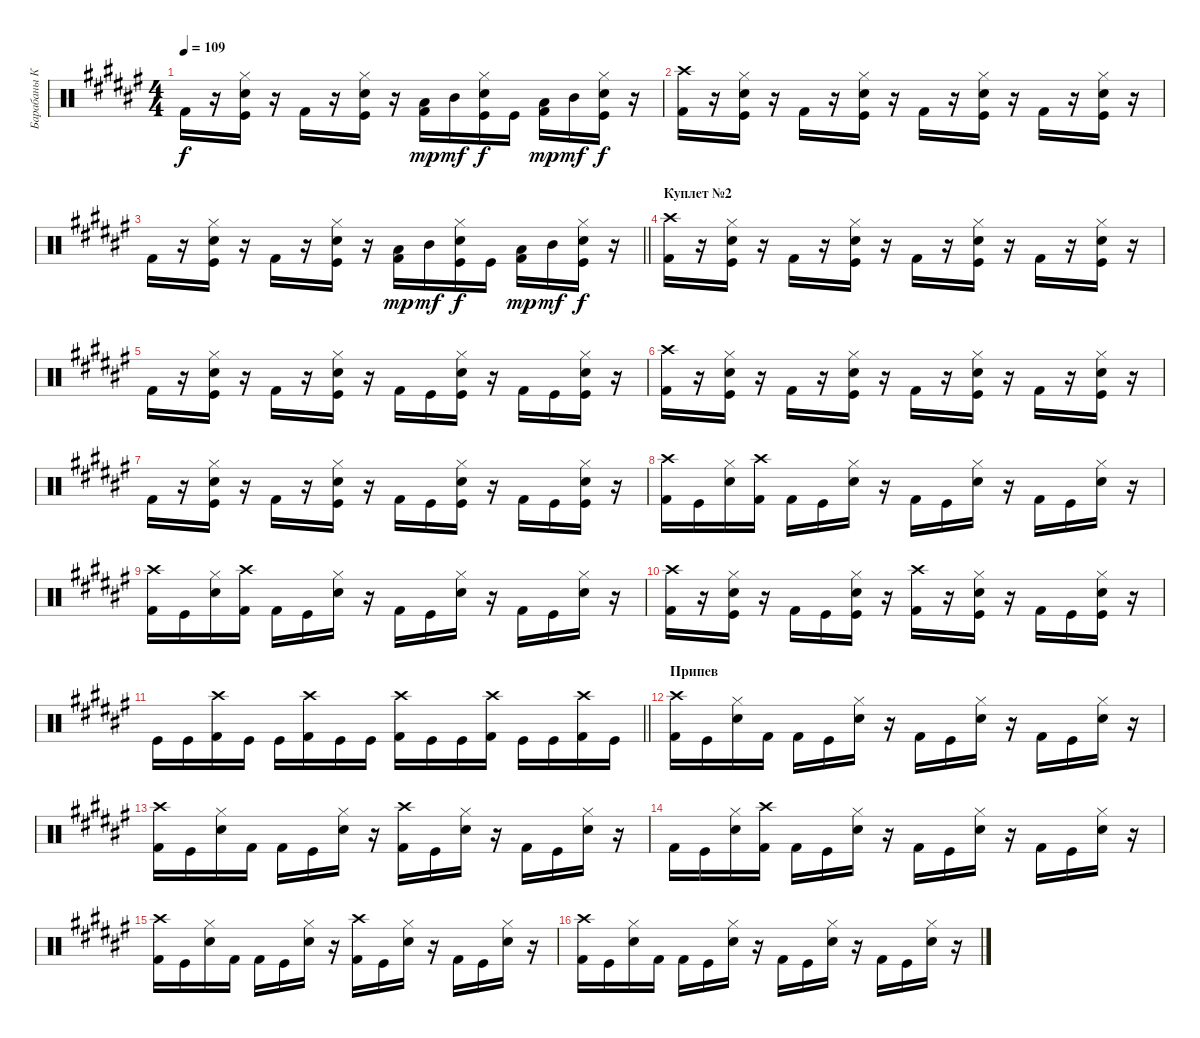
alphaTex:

\track ("Барабаны Кольян" "Барабаны К") {instrument percussion}
\staff {score}
\articulation defaults
\ts (4 4)
\tempo 109
\clef neutral
\ks f# "Kick (hit) 2".16{dy f}
r.16 ("Hi-Hat (closed)" "Snare (hit) 2" "Kick (hit)").16 r.16 "Kick (hit) 2".16 r.16 ("Hi-Hat (closed)" "Snare (hit) 2" "Kick (hit)").16 r.16 ("Low Tom (hit)" "Kick (hit) 2").16{dy mp} "Mid Tom (hit)".16{dy mf} ("Hi-Hat (closed)" "Snare (hit) 2" "Kick (hit)").16{dy f} "Kick (hit)".16 ("Low Tom (hit)" "Kick (hit) 2").16{dy mp} "Mid Tom (hit)".16{dy mf} ("Hi-Hat (closed)" "Snare (hit) 2" "Kick (hit)").16{dy f} r.16 |
("Crash high (hit)" "Kick (hit) 2").16 r.16 ("Hi-Hat (closed)" "Snare (hit) 2" "Kick (hit)").16 r.16 "Kick (hit) 2".16 r.16 ("Hi-Hat (closed)" "Snare (hit) 2" "Kick (hit)").16 r.16 "Kick (hit) 2".16 r.16 ("Hi-Hat (closed)" "Snare (hit) 2" "Kick (hit)").16 r.16 "Kick (hit) 2".16 r.16 ("Hi-Hat (closed)" "Snare (hit) 2" "Kick (hit)").16 r.16 |
\barLineRight lightlight "Kick (hit) 2".16
r.16 ("Hi-Hat (closed)" "Snare (hit) 2" "Kick (hit)").16 r.16 "Kick (hit) 2".16 r.16 ("Hi-Hat (closed)" "Snare (hit) 2" "Kick (hit)").16 r.16 ("Low Tom (hit)" "Kick (hit) 2").16{dy mp} "Mid Tom (hit)".16{dy mf} ("Hi-Hat (closed)" "Snare (hit) 2" "Kick (hit)").16{dy f} "Kick (hit)".16 ("Low Tom (hit)" "Kick (hit) 2").16{dy mp} "Mid Tom (hit)".16{dy mf} ("Hi-Hat (closed)" "Snare (hit) 2" "Kick (hit)").16{dy f} r.16 |
\section ("" "Куплет №2")
("Crash high (hit)" "Kick (hit) 2").16 r.16 ("Hi-Hat (closed)" "Snare (hit) 2" "Kick (hit)").16 r.16 "Kick (hit) 2".16 r.16 ("Hi-Hat (closed)" "Snare (hit) 2" "Kick (hit)").16 r.16 "Kick (hit) 2".16 r.16 ("Hi-Hat (closed)" "Snare (hit) 2" "Kick (hit)").16 r.16 "Kick (hit) 2".16 r.16 ("Hi-Hat (closed)" "Snare (hit) 2" "Kick (hit)").16 r.16 |
"Kick (hit) 2".16 r.16 ("Hi-Hat (closed)" "Snare (hit) 2" "Kick (hit)").16 r.16 "Kick (hit) 2".16 r.16 ("Hi-Hat (closed)" "Snare (hit) 2" "Kick (hit)").16 r.16 "Kick (hit) 2".16 "Kick (hit)".16 ("Hi-Hat (closed)" "Snare (hit) 2" "Kick (hit)").16 r.16 "Kick (hit) 2".16 "Kick (hit)".16 ("Hi-Hat (closed)" "Snare (hit) 2" "Kick (hit)").16 r.16 |
("Crash high (hit)" "Kick (hit) 2").16 r.16 ("Hi-Hat (closed)" "Snare (hit) 2" "Kick (hit)").16 r.16 "Kick (hit) 2".16 r.16 ("Hi-Hat (closed)" "Snare (hit) 2" "Kick (hit)").16 r.16 "Kick (hit) 2".16 r.16 ("Hi-Hat (closed)" "Snare (hit) 2" "Kick (hit)").16 r.16 "Kick (hit) 2".16 r.16 ("Hi-Hat (closed)" "Snare (hit) 2" "Kick (hit)").16 r.16 |
"Kick (hit) 2".16 r.16 ("Hi-Hat (closed)" "Snare (hit) 2" "Kick (hit)").16 r.16 "Kick (hit) 2".16 r.16 ("Hi-Hat (closed)" "Snare (hit) 2" "Kick (hit)").16 r.16 "Kick (hit) 2".16 "Kick (hit)".16 ("Hi-Hat (closed)" "Snare (hit) 2" "Kick (hit)").16 r.16 "Kick (hit) 2".16 "Kick (hit)".16 ("Hi-Hat (closed)" "Snare (hit) 2" "Kick (hit)").16 r.16 |
("Crash high (hit)" "Kick (hit) 2").16 "Kick (hit)".16 ("Hi-Hat (closed)" "Snare (hit) 2").16 ("Crash high (hit)" "Kick (hit) 2").16 "Kick (hit) 2".16 "Kick (hit)".16 ("Hi-Hat (closed)" "Snare (hit) 2").16 r.16 "Kick (hit) 2".16 "Kick (hit)".16 ("Hi-Hat (closed)" "Snare (hit) 2").16 r.16 "Kick (hit) 2".16 "Kick (hit)".16 ("Hi-Hat (closed)" "Snare (hit) 2").16 r.16 |
("Crash high (hit)" "Kick (hit) 2").16 "Kick (hit)".16 ("Hi-Hat (closed)" "Snare (hit) 2").16 ("Crash high (hit)" "Kick (hit) 2").16 "Kick (hit) 2".16 "Kick (hit)".16 ("Hi-Hat (closed)" "Snare (hit) 2").16 r.16 "Kick (hit) 2".16 "Kick (hit)".16 ("Hi-Hat (closed)" "Snare (hit) 2").16 r.16 "Kick (hit) 2".16 "Kick (hit)".16 ("Hi-Hat (closed)" "Snare (hit) 2").16 r.16 |
("Crash high (hit)" "Kick (hit) 2").16 r.16 ("Hi-Hat (closed)" "Snare (hit) 2" "Kick (hit)").16 r.16 "Kick (hit) 2".16 "Kick (hit)".16 ("Hi-Hat (closed)" "Snare (hit) 2" "Kick (hit)").16 r.16 ("Crash high (hit)" "Kick (hit) 2").16 r.16 ("Hi-Hat (closed)" "Snare (hit) 2" "Kick (hit)").16 r.16 "Kick (hit) 2".16 "Kick (hit)".16 ("Hi-Hat (closed)" "Snare (hit) 2" "Kick (hit)").16 r.16 |
\barLineRight lightlight "Kick (hit)".16 "Kick (hit)".16
("Crash high (hit)" "Kick (hit) 2").16 "Kick (hit)".16 "Kick (hit)".16 ("Crash high (hit)" "Kick (hit) 2").16 "Kick (hit)".16 "Kick (hit)".16 ("Crash high (hit)" "Kick (hit) 2").16 "Kick (hit)".16 "Kick (hit)".16 ("Crash high (hit)" "Kick (hit) 2").16 "Kick (hit)".16 "Kick (hit)".16 ("Crash high (hit)" "Kick (hit) 2").16 "Kick (hit)".16 |
\section ("" "Припев")
("Crash high (hit)" "Kick (hit) 2").16 "Kick (hit)".16 ("Hi-Hat (closed)" "Snare (hit) 2").16 "Kick (hit) 2".16 "Kick (hit) 2".16 "Kick (hit)".16 ("Hi-Hat (closed)" "Snare (hit) 2").16 r.16 "Kick (hit) 2".16 "Kick (hit)".16 ("Hi-Hat (closed)" "Snare (hit) 2").16 r.16 "Kick (hit) 2".16 "Kick (hit)".16 ("Hi-Hat (closed)" "Snare (hit) 2").16 r.16 |
("Crash high (hit)" "Kick (hit) 2").16 "Kick (hit)".16 ("Hi-Hat (closed)" "Snare (hit) 2").16 "Kick (hit) 2".16 "Kick (hit) 2".16 "Kick (hit)".16 ("Hi-Hat (closed)" "Snare (hit) 2").16 r.16 ("Crash high (hit)" "Kick (hit) 2").16 "Kick (hit)".16 ("Hi-Hat (closed)" "Snare (hit) 2").16 r.16 "Kick (hit) 2".16 "Kick (hit)".16 ("Hi-Hat (closed)" "Snare (hit) 2").16 r.16 |
"Kick (hit) 2".16 "Kick (hit)".16 ("Hi-Hat (closed)" "Snare (hit) 2").16 ("Crash high (hit)" "Kick (hit) 2").16 "Kick (hit) 2".16 "Kick (hit)".16 ("Hi-Hat (closed)" "Snare (hit) 2").16 r.16 "Kick (hit) 2".16 "Kick (hit)".16 ("Hi-Hat (closed)" "Snare (hit) 2").16 r.16 "Kick (hit) 2".16 "Kick (hit)".16 ("Hi-Hat (closed)" "Snare (hit) 2").16 r.16 |
("Crash high (hit)" "Kick (hit) 2").16 "Kick (hit)".16 ("Hi-Hat (closed)" "Snare (hit) 2").16 "Kick (hit) 2".16 "Kick (hit) 2".16 "Kick (hit)".16 ("Hi-Hat (closed)" "Snare (hit) 2").16 r.16 ("Crash high (hit)" "Kick (hit) 2").16 "Kick (hit)".16 ("Hi-Hat (closed)" "Snare (hit) 2").16 r.16 "Kick (hit) 2".16 "Kick (hit)".16 ("Hi-Hat (closed)" "Snare (hit) 2").16 r.16 |
("Crash high (hit)" "Kick (hit) 2").16 "Kick (hit)".16 ("Hi-Hat (closed)" "Snare (hit) 2").16 "Kick (hit) 2".16 "Kick (hit) 2".16 "Kick (hit)".16 ("Hi-Hat (closed)" "Snare (hit) 2").16 r.16 "Kick (hit) 2".16 "Kick (hit)".16 ("Hi-Hat (closed)" "Snare (hit) 2").16 r.16 "Kick (hit) 2".16 "Kick (hit)".16 ("Hi-Hat (closed)" "Snare (hit) 2").16 r.16
